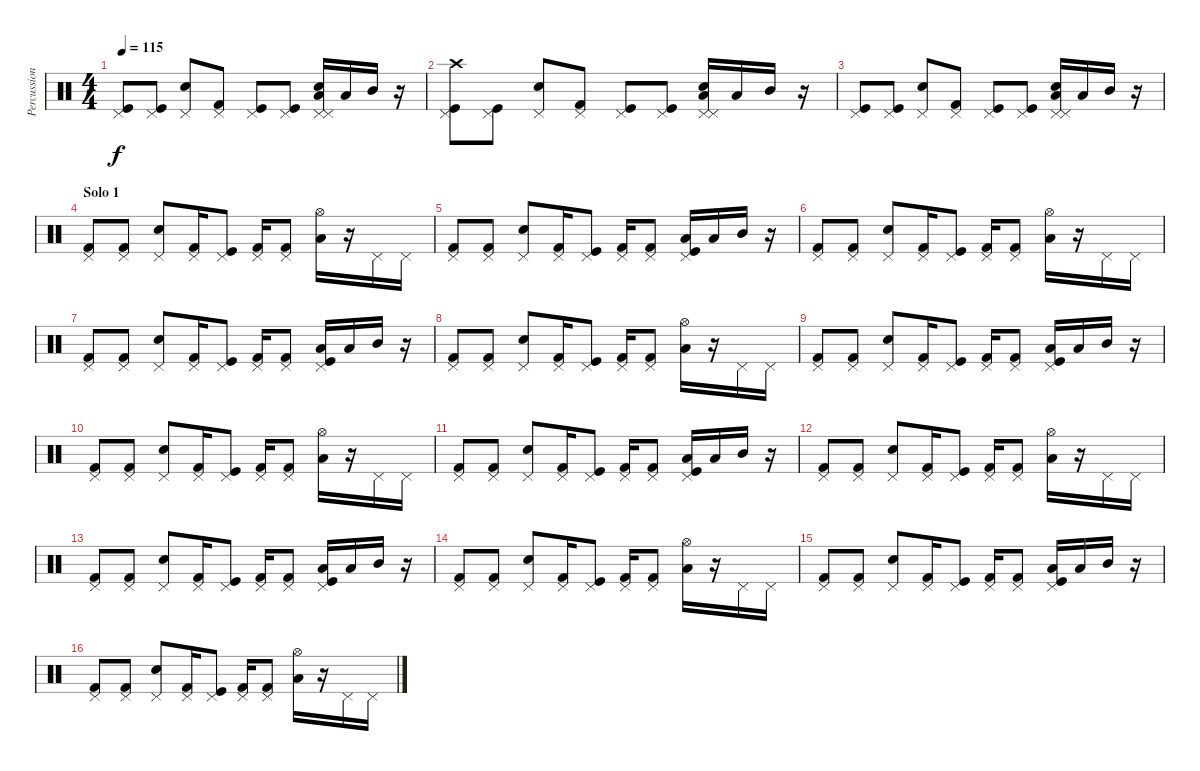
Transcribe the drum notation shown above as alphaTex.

\track ("Percussions" "Percussion") {instrument percussion}
\staff {score}
\articulation defaults
\ts (4 4)
\tempo 115
\clef neutral
\ks c
("Kick (hit)" "Pedal Hi-Hat (hit)").8{dy f volume 16} ("Kick (hit)" "Pedal Hi-Hat (hit)").8 ("Snare (hit) 2" "Pedal Hi-Hat (hit)").8 ("Kick (hit) 2" "Pedal Hi-Hat (hit)").8 ("Kick (hit)" "Pedal Hi-Hat (hit)").8 ("Kick (hit)" "Pedal Hi-Hat (hit)").8 ("Snare (hit) 2" "Pedal Hi-Hat (hit)" "Low Tom (hit)" "Pedal Hi-Hat (hit)").16 "Low Tom (hit)".16 "Mid Tom (hit)".16 r.16 |
("Kick (hit)" "Pedal Hi-Hat (hit)" "Crash high (hit)").8 ("Kick (hit)" "Pedal Hi-Hat (hit)").8 ("Snare (hit) 2" "Pedal Hi-Hat (hit)").8 ("Kick (hit) 2" "Pedal Hi-Hat (hit)").8 ("Kick (hit)" "Pedal Hi-Hat (hit)").8 ("Kick (hit)" "Pedal Hi-Hat (hit)").8 ("Snare (hit) 2" "Pedal Hi-Hat (hit)" "Low Tom (hit)" "Pedal Hi-Hat (hit)").16 "Low Tom (hit)".16 "Mid Tom (hit)".16 r.16 |
("Kick (hit)" "Pedal Hi-Hat (hit)").8 ("Kick (hit)" "Pedal Hi-Hat (hit)").8 ("Snare (hit) 2" "Pedal Hi-Hat (hit)").8 ("Kick (hit) 2" "Pedal Hi-Hat (hit)").8 ("Kick (hit)" "Pedal Hi-Hat (hit)").8 ("Kick (hit)" "Pedal Hi-Hat (hit)").8 ("Snare (hit) 2" "Pedal Hi-Hat (hit)" "Low Tom (hit)" "Pedal Hi-Hat (hit)").16 "Low Tom (hit)".16 "Mid Tom (hit)".16 r.16 |
\section ("" "Solo 1")
("Kick (hit) 2" "Pedal Hi-Hat (hit)").8 ("Kick (hit) 2" "Pedal Hi-Hat (hit)").8 ("Snare (hit) 2" "Pedal Hi-Hat (hit)").8 ("Kick (hit) 2" "Pedal Hi-Hat (hit)").16 ("Kick (hit)" "Pedal Hi-Hat (hit)").8 ("Kick (hit) 2" "Pedal Hi-Hat (hit)").16 ("Kick (hit) 2" "Pedal Hi-Hat (hit)").8 ("Low Tom (hit)" "Hi-Hat (open)").16 r.16 "Pedal Hi-Hat (hit)".16 "Pedal Hi-Hat (hit)".16 |
("Kick (hit) 2" "Pedal Hi-Hat (hit)").8 ("Kick (hit) 2" "Pedal Hi-Hat (hit)").8 ("Snare (hit) 2" "Pedal Hi-Hat (hit)").8 ("Kick (hit) 2" "Pedal Hi-Hat (hit)").16 ("Kick (hit)" "Pedal Hi-Hat (hit)").8 ("Kick (hit) 2" "Pedal Hi-Hat (hit)").16 ("Kick (hit) 2" "Pedal Hi-Hat (hit)").8 ("Kick (hit)" "Pedal Hi-Hat (hit)" "Low Tom (hit)").16 "Low Tom (hit)".16 "Mid Tom (hit)".16 r.16 |
("Kick (hit) 2" "Pedal Hi-Hat (hit)").8 ("Kick (hit) 2" "Pedal Hi-Hat (hit)").8 ("Snare (hit) 2" "Pedal Hi-Hat (hit)").8 ("Kick (hit) 2" "Pedal Hi-Hat (hit)").16 ("Kick (hit)" "Pedal Hi-Hat (hit)").8 ("Kick (hit) 2" "Pedal Hi-Hat (hit)").16 ("Kick (hit) 2" "Pedal Hi-Hat (hit)").8 ("Low Tom (hit)" "Hi-Hat (open)").16 r.16 "Pedal Hi-Hat (hit)".16 "Pedal Hi-Hat (hit)".16 |
("Kick (hit) 2" "Pedal Hi-Hat (hit)").8 ("Kick (hit) 2" "Pedal Hi-Hat (hit)").8 ("Snare (hit) 2" "Pedal Hi-Hat (hit)").8 ("Kick (hit) 2" "Pedal Hi-Hat (hit)").16 ("Kick (hit)" "Pedal Hi-Hat (hit)").8 ("Kick (hit) 2" "Pedal Hi-Hat (hit)").16 ("Kick (hit) 2" "Pedal Hi-Hat (hit)").8 ("Kick (hit)" "Pedal Hi-Hat (hit)" "Low Tom (hit)").16 "Low Tom (hit)".16 "Mid Tom (hit)".16 r.16 |
("Kick (hit) 2" "Pedal Hi-Hat (hit)").8 ("Kick (hit) 2" "Pedal Hi-Hat (hit)").8 ("Snare (hit) 2" "Pedal Hi-Hat (hit)").8 ("Kick (hit) 2" "Pedal Hi-Hat (hit)").16 ("Kick (hit)" "Pedal Hi-Hat (hit)").8 ("Kick (hit) 2" "Pedal Hi-Hat (hit)").16 ("Kick (hit) 2" "Pedal Hi-Hat (hit)").8 ("Low Tom (hit)" "Hi-Hat (open)").16 r.16 "Pedal Hi-Hat (hit)".16 "Pedal Hi-Hat (hit)".16 |
("Kick (hit) 2" "Pedal Hi-Hat (hit)").8 ("Kick (hit) 2" "Pedal Hi-Hat (hit)").8 ("Snare (hit) 2" "Pedal Hi-Hat (hit)").8 ("Kick (hit) 2" "Pedal Hi-Hat (hit)").16 ("Kick (hit)" "Pedal Hi-Hat (hit)").8 ("Kick (hit) 2" "Pedal Hi-Hat (hit)").16 ("Kick (hit) 2" "Pedal Hi-Hat (hit)").8 ("Kick (hit)" "Pedal Hi-Hat (hit)" "Low Tom (hit)").16 "Low Tom (hit)".16 "Mid Tom (hit)".16 r.16 |
("Kick (hit) 2" "Pedal Hi-Hat (hit)").8 ("Kick (hit) 2" "Pedal Hi-Hat (hit)").8 ("Snare (hit) 2" "Pedal Hi-Hat (hit)").8 ("Kick (hit) 2" "Pedal Hi-Hat (hit)").16 ("Kick (hit)" "Pedal Hi-Hat (hit)").8 ("Kick (hit) 2" "Pedal Hi-Hat (hit)").16 ("Kick (hit) 2" "Pedal Hi-Hat (hit)").8 ("Low Tom (hit)" "Hi-Hat (open)").16 r.16 "Pedal Hi-Hat (hit)".16 "Pedal Hi-Hat (hit)".16 |
("Kick (hit) 2" "Pedal Hi-Hat (hit)").8 ("Kick (hit) 2" "Pedal Hi-Hat (hit)").8 ("Snare (hit) 2" "Pedal Hi-Hat (hit)").8 ("Kick (hit) 2" "Pedal Hi-Hat (hit)").16 ("Kick (hit)" "Pedal Hi-Hat (hit)").8 ("Kick (hit) 2" "Pedal Hi-Hat (hit)").16 ("Kick (hit) 2" "Pedal Hi-Hat (hit)").8 ("Kick (hit)" "Pedal Hi-Hat (hit)" "Low Tom (hit)").16 "Low Tom (hit)".16 "Mid Tom (hit)".16 r.16 |
("Kick (hit) 2" "Pedal Hi-Hat (hit)").8 ("Kick (hit) 2" "Pedal Hi-Hat (hit)").8 ("Snare (hit) 2" "Pedal Hi-Hat (hit)").8 ("Kick (hit) 2" "Pedal Hi-Hat (hit)").16 ("Kick (hit)" "Pedal Hi-Hat (hit)").8 ("Kick (hit) 2" "Pedal Hi-Hat (hit)").16 ("Kick (hit) 2" "Pedal Hi-Hat (hit)").8 ("Low Tom (hit)" "Hi-Hat (open)").16 r.16 "Pedal Hi-Hat (hit)".16 "Pedal Hi-Hat (hit)".16 |
("Kick (hit) 2" "Pedal Hi-Hat (hit)").8 ("Kick (hit) 2" "Pedal Hi-Hat (hit)").8 ("Snare (hit) 2" "Pedal Hi-Hat (hit)").8 ("Kick (hit) 2" "Pedal Hi-Hat (hit)").16 ("Kick (hit)" "Pedal Hi-Hat (hit)").8 ("Kick (hit) 2" "Pedal Hi-Hat (hit)").16 ("Kick (hit) 2" "Pedal Hi-Hat (hit)").8 ("Kick (hit)" "Pedal Hi-Hat (hit)" "Low Tom (hit)").16 "Low Tom (hit)".16 "Mid Tom (hit)".16 r.16 |
("Kick (hit) 2" "Pedal Hi-Hat (hit)").8 ("Kick (hit) 2" "Pedal Hi-Hat (hit)").8 ("Snare (hit) 2" "Pedal Hi-Hat (hit)").8 ("Kick (hit) 2" "Pedal Hi-Hat (hit)").16 ("Kick (hit)" "Pedal Hi-Hat (hit)").8 ("Kick (hit) 2" "Pedal Hi-Hat (hit)").16 ("Kick (hit) 2" "Pedal Hi-Hat (hit)").8 ("Low Tom (hit)" "Hi-Hat (open)").16 r.16 "Pedal Hi-Hat (hit)".16 "Pedal Hi-Hat (hit)".16 |
("Kick (hit) 2" "Pedal Hi-Hat (hit)").8 ("Kick (hit) 2" "Pedal Hi-Hat (hit)").8 ("Snare (hit) 2" "Pedal Hi-Hat (hit)").8 ("Kick (hit) 2" "Pedal Hi-Hat (hit)").16 ("Kick (hit)" "Pedal Hi-Hat (hit)").8 ("Kick (hit) 2" "Pedal Hi-Hat (hit)").16 ("Kick (hit) 2" "Pedal Hi-Hat (hit)").8 ("Kick (hit)" "Pedal Hi-Hat (hit)" "Low Tom (hit)").16 "Low Tom (hit)".16 "Mid Tom (hit)".16 r.16 |
("Kick (hit) 2" "Pedal Hi-Hat (hit)").8 ("Kick (hit) 2" "Pedal Hi-Hat (hit)").8 ("Snare (hit) 2" "Pedal Hi-Hat (hit)").8 ("Kick (hit) 2" "Pedal Hi-Hat (hit)").16 ("Kick (hit)" "Pedal Hi-Hat (hit)").8 ("Kick (hit) 2" "Pedal Hi-Hat (hit)").16 ("Kick (hit) 2" "Pedal Hi-Hat (hit)").8 ("Low Tom (hit)" "Hi-Hat (open)").16 r.16 "Pedal Hi-Hat (hit)".16 "Pedal Hi-Hat (hit)".16
